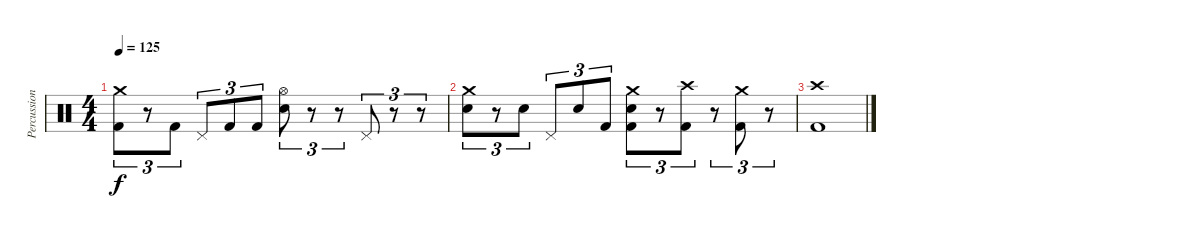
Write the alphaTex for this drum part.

\track ("Percussion" "Percussion") {instrument percussion}
\staff {score}
\articulation defaults
\ts (4 4)
\tempo 125
\clef neutral
\ks c
("Crash medium (hit)" "Kick (hit) 2").8{tu (3 2) dy f} r.8{tu (3 2)} "Kick (hit) 2".8{tu (3 2)} "Pedal Hi-Hat (hit)".8{tu (3 2)} "Kick (hit) 2".8{tu (3 2)} "Kick (hit) 2".8{tu (3 2)} ("Hi-Hat (open)" "Electric Snare (hit)").8{tu (3 2)} r.8{tu (3 2)} r.8{tu (3 2)} "Pedal Hi-Hat (hit)".8{tu (3 2)} r.8{tu (3 2)} r.8{tu (3 2)} |
("Crash medium (hit)" "Electric Snare (hit)").8{tu (3 2)} r.8{tu (3 2)} "Electric Snare (hit)".8{tu (3 2)} "Pedal Hi-Hat (hit)".8{tu (3 2)} "Electric Snare (hit)".8{tu (3 2)} "Kick (hit) 2".8{tu (3 2)} ("Crash medium (hit)" "Electric Snare (hit)" "Kick (hit) 2").8{tu (3 2)} r.8{tu (3 2)} ("Crash high (hit)" "Kick (hit) 2").8{tu (3 2)} r.8{tu (3 2)} ("Crash medium (hit)" "Kick (hit) 2").8{tu (3 2)} r.8{tu (3 2)} |
("Crash high (hit)" "Kick (hit) 2").1
